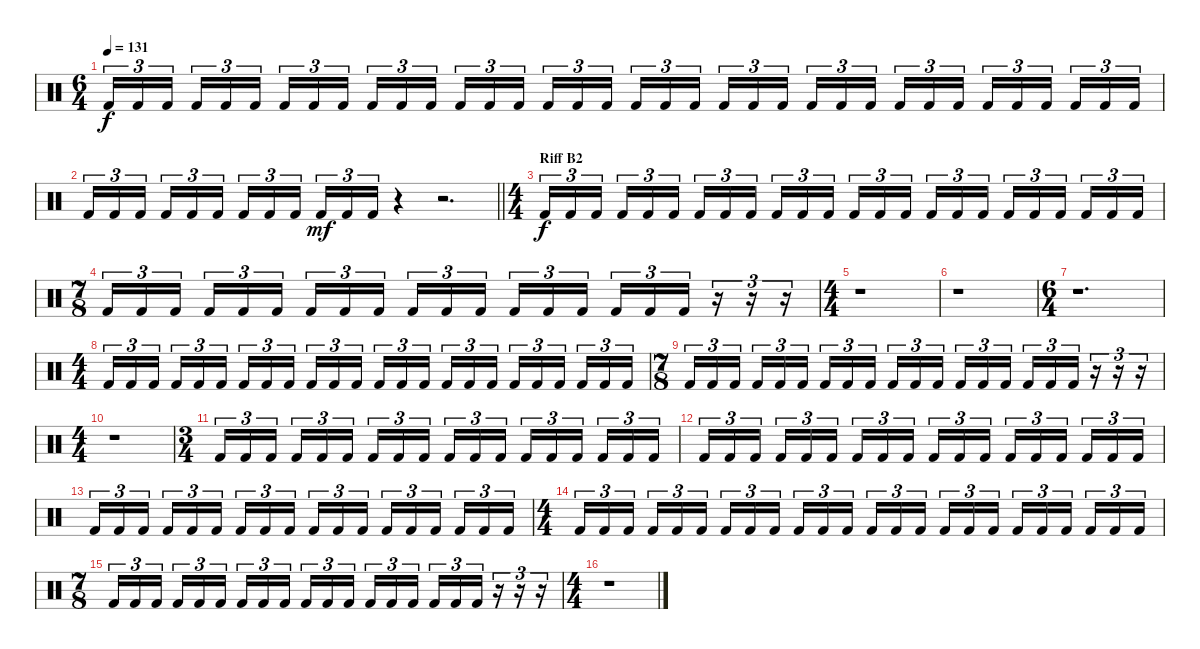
\track "" {instrument percussion}
\staff {score}
\articulation defaults
\ts (6 4)
\tempo 131
\clef neutral
\ks c "Kick (hit) 2".16{tu (3 2) dy f} "Kick (hit) 2".16{tu (3 2)} "Kick (hit) 2".16{tu (3 2) beam splitsecondary} "Kick (hit) 2".16{tu (3 2)} "Kick (hit) 2".16{tu (3 2)} "Kick (hit) 2".16{tu (3 2) beam splitsecondary} "Kick (hit) 2".16{tu (3 2)} "Kick (hit) 2".16{tu (3 2)} "Kick (hit) 2".16{tu (3 2) beam splitsecondary} "Kick (hit) 2".16{tu (3 2)} "Kick (hit) 2".16{tu (3 2)} "Kick (hit) 2".16{tu (3 2) beam splitsecondary} "Kick (hit) 2".16{tu (3 2)} "Kick (hit) 2".16{tu (3 2)} "Kick (hit) 2".16{tu (3 2) beam splitsecondary} "Kick (hit) 2".16{tu (3 2)} "Kick (hit) 2".16{tu (3 2)} "Kick (hit) 2".16{tu (3 2)} "Kick (hit) 2".16{tu (3 2)} "Kick (hit) 2".16{tu (3 2)} "Kick (hit) 2".16{tu (3 2) beam splitsecondary} "Kick (hit) 2".16{tu (3 2)} "Kick (hit) 2".16{tu (3 2)} "Kick (hit) 2".16{tu (3 2) beam splitsecondary} "Kick (hit) 2".16{tu (3 2)} "Kick (hit) 2".16{tu (3 2)} "Kick (hit) 2".16{tu (3 2) beam splitsecondary} "Kick (hit) 2".16{tu (3 2)} "Kick (hit) 2".16{tu (3 2)} "Kick (hit) 2".16{tu (3 2) beam splitsecondary} "Kick (hit) 2".16{tu (3 2)} "Kick (hit) 2".16{tu (3 2)} "Kick (hit) 2".16{tu (3 2) beam splitsecondary} "Kick (hit) 2".16{tu (3 2)} "Kick (hit) 2".16{tu (3 2)} "Kick (hit) 2".16{tu (3 2)}
|
\barLineRight lightlight "Kick (hit) 2".16{tu (3 2)} "Kick (hit) 2".16{tu (3 2)} "Kick (hit) 2".16{tu (3 2) beam splitsecondary} "Kick (hit) 2".16{tu (3 2)} "Kick (hit) 2".16{tu (3 2)} "Kick (hit) 2".16{tu (3 2) beam splitsecondary} "Kick (hit) 2".16{tu (3 2)} "Kick (hit) 2".16{tu (3 2)} "Kick (hit) 2".16{tu (3 2) beam splitsecondary} "Kick (hit) 2".16{tu (3 2) dy mf} "Kick (hit) 2".16{tu (3 2)} "Kick (hit) 2".16{tu (3 2)}
r.4 r.2{d} |
\ts (4 4)
\section ("" "Riff B2")
"Kick (hit) 2".16{tu (3 2) dy f} "Kick (hit) 2".16{tu (3 2)} "Kick (hit) 2".16{tu (3 2) beam splitsecondary} "Kick (hit) 2".16{tu (3 2)} "Kick (hit) 2".16{tu (3 2)} "Kick (hit) 2".16{tu (3 2)} "Kick (hit) 2".16{tu (3 2)} "Kick (hit) 2".16{tu (3 2)} "Kick (hit) 2".16{tu (3 2) beam splitsecondary} "Kick (hit) 2".16{tu (3 2)} "Kick (hit) 2".16{tu (3 2)} "Kick (hit) 2".16{tu (3 2)} "Kick (hit) 2".16{tu (3 2)} "Kick (hit) 2".16{tu (3 2)} "Kick (hit) 2".16{tu (3 2) beam splitsecondary} "Kick (hit) 2".16{tu (3 2)} "Kick (hit) 2".16{tu (3 2)} "Kick (hit) 2".16{tu (3 2)} "Kick (hit) 2".16{tu (3 2)} "Kick (hit) 2".16{tu (3 2)} "Kick (hit) 2".16{tu (3 2) beam splitsecondary} "Kick (hit) 2".16{tu (3 2)} "Kick (hit) 2".16{tu (3 2)} "Kick (hit) 2".16{tu (3 2)} |
\ts (7 8)
"Kick (hit) 2".16{tu (3 2)} "Kick (hit) 2".16{tu (3 2)} "Kick (hit) 2".16{tu (3 2)} "Kick (hit) 2".16{tu (3 2)} "Kick (hit) 2".16{tu (3 2)} "Kick (hit) 2".16{tu (3 2)} "Kick (hit) 2".16{tu (3 2)} "Kick (hit) 2".16{tu (3 2)} "Kick (hit) 2".16{tu (3 2)} "Kick (hit) 2".16{tu (3 2)} "Kick (hit) 2".16{tu (3 2)} "Kick (hit) 2".16{tu (3 2)} "Kick (hit) 2".16{tu (3 2)} "Kick (hit) 2".16{tu (3 2)} "Kick (hit) 2".16{tu (3 2)} "Kick (hit) 2".16{tu (3 2)} "Kick (hit) 2".16{tu (3 2)} "Kick (hit) 2".16{tu (3 2)} r.16{tu (3 2)} r.16{tu (3 2)} r.16{tu (3 2)} |
\ts (4 4)
r.1 |
r.1 |
\ts (6 4)
r.1{d} |
\ts (4 4)
"Kick (hit) 2".16{tu (3 2)} "Kick (hit) 2".16{tu (3 2)} "Kick (hit) 2".16{tu (3 2) beam splitsecondary} "Kick (hit) 2".16{tu (3 2)} "Kick (hit) 2".16{tu (3 2)} "Kick (hit) 2".16{tu (3 2)} "Kick (hit) 2".16{tu (3 2)} "Kick (hit) 2".16{tu (3 2)} "Kick (hit) 2".16{tu (3 2) beam splitsecondary} "Kick (hit) 2".16{tu (3 2)} "Kick (hit) 2".16{tu (3 2)} "Kick (hit) 2".16{tu (3 2)} "Kick (hit) 2".16{tu (3 2)} "Kick (hit) 2".16{tu (3 2)} "Kick (hit) 2".16{tu (3 2) beam splitsecondary} "Kick (hit) 2".16{tu (3 2)} "Kick (hit) 2".16{tu (3 2)} "Kick (hit) 2".16{tu (3 2)} "Kick (hit) 2".16{tu (3 2)} "Kick (hit) 2".16{tu (3 2)} "Kick (hit) 2".16{tu (3 2) beam splitsecondary} "Kick (hit) 2".16{tu (3 2)} "Kick (hit) 2".16{tu (3 2)} "Kick (hit) 2".16{tu (3 2)} |
\ts (7 8)
"Kick (hit) 2".16{tu (3 2)} "Kick (hit) 2".16{tu (3 2)} "Kick (hit) 2".16{tu (3 2)} "Kick (hit) 2".16{tu (3 2)} "Kick (hit) 2".16{tu (3 2)} "Kick (hit) 2".16{tu (3 2)} "Kick (hit) 2".16{tu (3 2)} "Kick (hit) 2".16{tu (3 2)} "Kick (hit) 2".16{tu (3 2)} "Kick (hit) 2".16{tu (3 2)} "Kick (hit) 2".16{tu (3 2)} "Kick (hit) 2".16{tu (3 2)} "Kick (hit) 2".16{tu (3 2)} "Kick (hit) 2".16{tu (3 2)} "Kick (hit) 2".16{tu (3 2)} "Kick (hit) 2".16{tu (3 2)} "Kick (hit) 2".16{tu (3 2)} "Kick (hit) 2".16{tu (3 2)} r.16{tu (3 2)} r.16{tu (3 2)} r.16{tu (3 2)} |
\ts (4 4)
r.1 |
\ts (3 4)
"Kick (hit) 2".16{tu (3 2)} "Kick (hit) 2".16{tu (3 2)} "Kick (hit) 2".16{tu (3 2) beam splitsecondary} "Kick (hit) 2".16{tu (3 2)} "Kick (hit) 2".16{tu (3 2)} "Kick (hit) 2".16{tu (3 2)} "Kick (hit) 2".16{tu (3 2)} "Kick (hit) 2".16{tu (3 2)} "Kick (hit) 2".16{tu (3 2) beam splitsecondary} "Kick (hit) 2".16{tu (3 2)} "Kick (hit) 2".16{tu (3 2)} "Kick (hit) 2".16{tu (3 2)} "Kick (hit) 2".16{tu (3 2)} "Kick (hit) 2".16{tu (3 2)} "Kick (hit) 2".16{tu (3 2) beam splitsecondary} "Kick (hit) 2".16{tu (3 2)} "Kick (hit) 2".16{tu (3 2)} "Kick (hit) 2".16{tu (3 2)} |
"Kick (hit) 2".16{tu (3 2)} "Kick (hit) 2".16{tu (3 2)} "Kick (hit) 2".16{tu (3 2) beam splitsecondary} "Kick (hit) 2".16{tu (3 2)} "Kick (hit) 2".16{tu (3 2)} "Kick (hit) 2".16{tu (3 2)} "Kick (hit) 2".16{tu (3 2)} "Kick (hit) 2".16{tu (3 2)} "Kick (hit) 2".16{tu (3 2) beam splitsecondary} "Kick (hit) 2".16{tu (3 2)} "Kick (hit) 2".16{tu (3 2)} "Kick (hit) 2".16{tu (3 2)} "Kick (hit) 2".16{tu (3 2)} "Kick (hit) 2".16{tu (3 2)} "Kick (hit) 2".16{tu (3 2) beam splitsecondary} "Kick (hit) 2".16{tu (3 2)} "Kick (hit) 2".16{tu (3 2)} "Kick (hit) 2".16{tu (3 2)} |
"Kick (hit) 2".16{tu (3 2)} "Kick (hit) 2".16{tu (3 2)} "Kick (hit) 2".16{tu (3 2) beam splitsecondary} "Kick (hit) 2".16{tu (3 2)} "Kick (hit) 2".16{tu (3 2)} "Kick (hit) 2".16{tu (3 2)} "Kick (hit) 2".16{tu (3 2)} "Kick (hit) 2".16{tu (3 2)} "Kick (hit) 2".16{tu (3 2) beam splitsecondary} "Kick (hit) 2".16{tu (3 2)} "Kick (hit) 2".16{tu (3 2)} "Kick (hit) 2".16{tu (3 2)} "Kick (hit) 2".16{tu (3 2)} "Kick (hit) 2".16{tu (3 2)} "Kick (hit) 2".16{tu (3 2) beam splitsecondary} "Kick (hit) 2".16{tu (3 2)} "Kick (hit) 2".16{tu (3 2)} "Kick (hit) 2".16{tu (3 2)} |
\ts (4 4)
"Kick (hit) 2".16{tu (3 2)} "Kick (hit) 2".16{tu (3 2)} "Kick (hit) 2".16{tu (3 2) beam splitsecondary} "Kick (hit) 2".16{tu (3 2)} "Kick (hit) 2".16{tu (3 2)} "Kick (hit) 2".16{tu (3 2)} "Kick (hit) 2".16{tu (3 2)} "Kick (hit) 2".16{tu (3 2)} "Kick (hit) 2".16{tu (3 2) beam splitsecondary} "Kick (hit) 2".16{tu (3 2)} "Kick (hit) 2".16{tu (3 2)} "Kick (hit) 2".16{tu (3 2)} "Kick (hit) 2".16{tu (3 2)} "Kick (hit) 2".16{tu (3 2)} "Kick (hit) 2".16{tu (3 2) beam splitsecondary} "Kick (hit) 2".16{tu (3 2)} "Kick (hit) 2".16{tu (3 2)} "Kick (hit) 2".16{tu (3 2)} "Kick (hit) 2".16{tu (3 2)} "Kick (hit) 2".16{tu (3 2)} "Kick (hit) 2".16{tu (3 2) beam splitsecondary} "Kick (hit) 2".16{tu (3 2)} "Kick (hit) 2".16{tu (3 2)} "Kick (hit) 2".16{tu (3 2)} |
\ts (7 8)
"Kick (hit) 2".16{tu (3 2)} "Kick (hit) 2".16{tu (3 2)} "Kick (hit) 2".16{tu (3 2)} "Kick (hit) 2".16{tu (3 2)} "Kick (hit) 2".16{tu (3 2)} "Kick (hit) 2".16{tu (3 2)} "Kick (hit) 2".16{tu (3 2)} "Kick (hit) 2".16{tu (3 2)} "Kick (hit) 2".16{tu (3 2)} "Kick (hit) 2".16{tu (3 2)} "Kick (hit) 2".16{tu (3 2)} "Kick (hit) 2".16{tu (3 2)} "Kick (hit) 2".16{tu (3 2)} "Kick (hit) 2".16{tu (3 2)} "Kick (hit) 2".16{tu (3 2)} "Kick (hit) 2".16{tu (3 2)} "Kick (hit) 2".16{tu (3 2)} "Kick (hit) 2".16{tu (3 2)} r.16{tu (3 2)} r.16{tu (3 2)} r.16{tu (3 2)} |
\ts (4 4)
r.1
